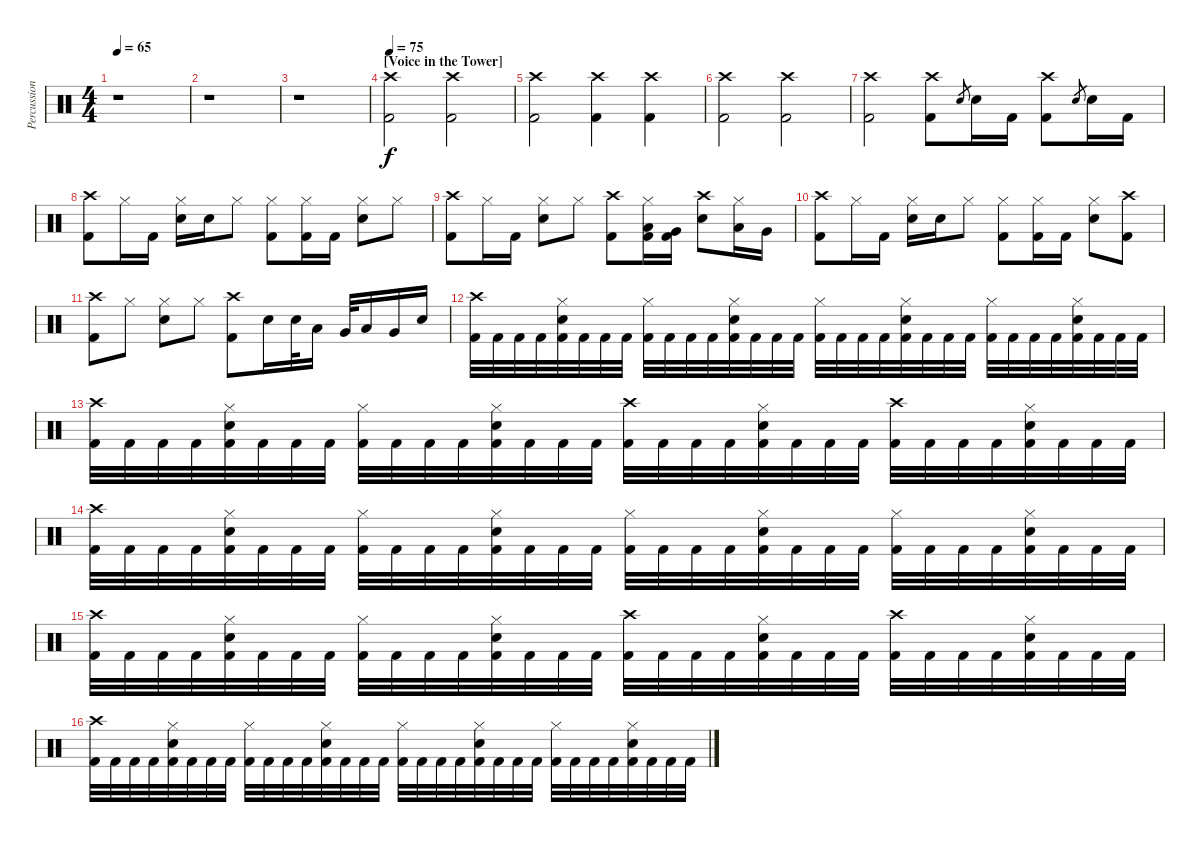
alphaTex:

\track ("Percussions" "Percussion") {instrument percussion}
\staff {score}
\articulation defaults
\ts (4 4)
\tempo 65
\clef neutral
\ks c
r.1{dy f} |
r.1 |
r.1 |
\section ("" "[Voice in the Tower]")
\tempo 75
("Crash high (hit)" "Kick (hit) 2").2 ("Crash high (hit)" "Kick (hit) 2").2 |
("Crash high (hit)" "Kick (hit) 2").2 ("Crash high (hit)" "Kick (hit) 2").4 ("Crash high (hit)" "Kick (hit) 2").4 |
("Crash high (hit)" "Kick (hit) 2").2 ("Crash high (hit)" "Kick (hit) 2").2 |
("Crash high (hit)" "Kick (hit) 2").2 ("Crash high (hit)" "Kick (hit) 2").8 "Electric Snare (hit)".8{gr} "Electric Snare (hit)".16 "Kick (hit) 2".16 ("Crash high (hit)" "Kick (hit) 2").8 "Electric Snare (hit)".8{gr} "Electric Snare (hit)".16 "Kick (hit) 2".16 |
("Crash high (hit)" "Kick (hit) 2").8 "Hi-Hat (closed)".16 "Kick (hit) 2".16 ("Hi-Hat (closed)" "Electric Snare (hit)").16 "Electric Snare (hit)".16 "Hi-Hat (closed)".8 ("Hi-Hat (closed)" "Kick (hit) 2").8 ("Hi-Hat (closed)" "Kick (hit) 2").16 "Kick (hit) 2".16 ("Hi-Hat (closed)" "Electric Snare (hit)").8 "Hi-Hat (closed)".8 |
("Crash high (hit)" "Kick (hit) 2").8 "Hi-Hat (closed)".16 "Kick (hit) 2".16 ("Hi-Hat (closed)" "Electric Snare (hit)").8 "Hi-Hat (closed)".8 ("Crash high (hit)" "Kick (hit) 2").8 ("Hi-Hat (closed)" "Low Floor Tom (hit)" "Kick (hit) 2").16 ("Very Low Tom (hit)" "Kick (hit) 2").16 ("Crash high (hit)" "Electric Snare (hit)").8 ("Hi-Hat (closed)" "Low Tom (hit)").16 "Very Low Tom (hit)".16 |
("Crash high (hit)" "Kick (hit) 2").8 "Hi-Hat (closed)".16 "Kick (hit) 2".16 ("Hi-Hat (closed)" "Electric Snare (hit)").16 "Electric Snare (hit)".16 "Hi-Hat (closed)".8 ("Hi-Hat (closed)" "Kick (hit) 2").8 ("Hi-Hat (closed)" "Kick (hit) 2").16 "Kick (hit) 2".16 ("Hi-Hat (closed)" "Electric Snare (hit)").8 ("Crash high (hit)" "Kick (hit) 2").8 |
("Crash high (hit)" "Kick (hit) 2").8 "Hi-Hat (closed)".8 ("Hi-Hat (closed)" "Electric Snare (hit)").8 "Hi-Hat (closed)".8 ("Crash high (hit)" "Kick (hit) 2").8 "Electric Snare (hit)".16 "Electric Snare (hit)".32 "Low Tom (hit)".16 "Very Low Tom (hit)".32 "Low Floor Tom (hit)".16 "Very Low Tom (hit)".16 "Electric Snare (hit)".16 |
("Crash high (hit)" "Kick (hit) 2").32 "Kick (hit) 2".32 "Kick (hit) 2".32 "Kick (hit) 2".32 ("Hi-Hat (closed)" "Electric Snare (hit)" "Kick (hit) 2").32 "Kick (hit) 2".32 "Kick (hit) 2".32 "Kick (hit) 2".32 ("Hi-Hat (closed)" "Kick (hit) 2").32 "Kick (hit) 2".32 "Kick (hit) 2".32 "Kick (hit) 2".32 ("Hi-Hat (closed)" "Electric Snare (hit)" "Kick (hit) 2").32 "Kick (hit) 2".32 "Kick (hit) 2".32 "Kick (hit) 2".32 ("Hi-Hat (closed)" "Kick (hit) 2").32 "Kick (hit) 2".32 "Kick (hit) 2".32 "Kick (hit) 2".32 ("Hi-Hat (closed)" "Electric Snare (hit)" "Kick (hit) 2").32 "Kick (hit) 2".32 "Kick (hit) 2".32 "Kick (hit) 2".32 ("Hi-Hat (closed)" "Kick (hit) 2").32 "Kick (hit) 2".32 "Kick (hit) 2".32 "Kick (hit) 2".32 ("Hi-Hat (closed)" "Electric Snare (hit)" "Kick (hit) 2").32 "Kick (hit) 2".32 "Kick (hit) 2".32 "Kick (hit) 2".32 |
("Crash high (hit)" "Kick (hit) 2").32 "Kick (hit) 2".32 "Kick (hit) 2".32 "Kick (hit) 2".32 ("Hi-Hat (closed)" "Electric Snare (hit)" "Kick (hit) 2").32 "Kick (hit) 2".32 "Kick (hit) 2".32 "Kick (hit) 2".32 ("Hi-Hat (closed)" "Kick (hit) 2").32 "Kick (hit) 2".32 "Kick (hit) 2".32 "Kick (hit) 2".32 ("Hi-Hat (closed)" "Electric Snare (hit)" "Kick (hit) 2").32 "Kick (hit) 2".32 "Kick (hit) 2".32 "Kick (hit) 2".32 ("Crash high (hit)" "Kick (hit) 2").32 "Kick (hit) 2".32 "Kick (hit) 2".32 "Kick (hit) 2".32 ("Hi-Hat (closed)" "Electric Snare (hit)" "Kick (hit) 2").32 "Kick (hit) 2".32 "Kick (hit) 2".32 "Kick (hit) 2".32 ("Crash high (hit)" "Kick (hit) 2").32 "Kick (hit) 2".32 "Kick (hit) 2".32 "Kick (hit) 2".32 ("Hi-Hat (closed)" "Electric Snare (hit)" "Kick (hit) 2").32 "Kick (hit) 2".32 "Kick (hit) 2".32 "Kick (hit) 2".32 |
("Crash high (hit)" "Kick (hit) 2").32 "Kick (hit) 2".32 "Kick (hit) 2".32 "Kick (hit) 2".32 ("Hi-Hat (closed)" "Electric Snare (hit)" "Kick (hit) 2").32 "Kick (hit) 2".32 "Kick (hit) 2".32 "Kick (hit) 2".32 ("Hi-Hat (closed)" "Kick (hit) 2").32 "Kick (hit) 2".32 "Kick (hit) 2".32 "Kick (hit) 2".32 ("Hi-Hat (closed)" "Electric Snare (hit)" "Kick (hit) 2").32 "Kick (hit) 2".32 "Kick (hit) 2".32 "Kick (hit) 2".32 ("Hi-Hat (closed)" "Kick (hit) 2").32 "Kick (hit) 2".32 "Kick (hit) 2".32 "Kick (hit) 2".32 ("Hi-Hat (closed)" "Electric Snare (hit)" "Kick (hit) 2").32 "Kick (hit) 2".32 "Kick (hit) 2".32 "Kick (hit) 2".32 ("Hi-Hat (closed)" "Kick (hit) 2").32 "Kick (hit) 2".32 "Kick (hit) 2".32 "Kick (hit) 2".32 ("Hi-Hat (closed)" "Electric Snare (hit)" "Kick (hit) 2").32 "Kick (hit) 2".32 "Kick (hit) 2".32 "Kick (hit) 2".32 |
("Crash high (hit)" "Kick (hit) 2").32 "Kick (hit) 2".32 "Kick (hit) 2".32 "Kick (hit) 2".32 ("Hi-Hat (closed)" "Electric Snare (hit)" "Kick (hit) 2").32 "Kick (hit) 2".32 "Kick (hit) 2".32 "Kick (hit) 2".32 ("Hi-Hat (closed)" "Kick (hit) 2").32 "Kick (hit) 2".32 "Kick (hit) 2".32 "Kick (hit) 2".32 ("Hi-Hat (closed)" "Electric Snare (hit)" "Kick (hit) 2").32 "Kick (hit) 2".32 "Kick (hit) 2".32 "Kick (hit) 2".32 ("Crash high (hit)" "Kick (hit) 2").32 "Kick (hit) 2".32 "Kick (hit) 2".32 "Kick (hit) 2".32 ("Hi-Hat (closed)" "Electric Snare (hit)" "Kick (hit) 2").32 "Kick (hit) 2".32 "Kick (hit) 2".32 "Kick (hit) 2".32 ("Crash high (hit)" "Kick (hit) 2").32 "Kick (hit) 2".32 "Kick (hit) 2".32 "Kick (hit) 2".32 ("Hi-Hat (closed)" "Electric Snare (hit)" "Kick (hit) 2").32 "Kick (hit) 2".32 "Kick (hit) 2".32 "Kick (hit) 2".32 |
("Crash high (hit)" "Kick (hit) 2").32 "Kick (hit) 2".32 "Kick (hit) 2".32 "Kick (hit) 2".32 ("Hi-Hat (closed)" "Electric Snare (hit)" "Kick (hit) 2").32 "Kick (hit) 2".32 "Kick (hit) 2".32 "Kick (hit) 2".32 ("Hi-Hat (closed)" "Kick (hit) 2").32 "Kick (hit) 2".32 "Kick (hit) 2".32 "Kick (hit) 2".32 ("Hi-Hat (closed)" "Electric Snare (hit)" "Kick (hit) 2").32 "Kick (hit) 2".32 "Kick (hit) 2".32 "Kick (hit) 2".32 ("Hi-Hat (closed)" "Kick (hit) 2").32 "Kick (hit) 2".32 "Kick (hit) 2".32 "Kick (hit) 2".32 ("Hi-Hat (closed)" "Electric Snare (hit)" "Kick (hit) 2").32 "Kick (hit) 2".32 "Kick (hit) 2".32 "Kick (hit) 2".32 ("Hi-Hat (closed)" "Kick (hit) 2").32 "Kick (hit) 2".32 "Kick (hit) 2".32 "Kick (hit) 2".32 ("Hi-Hat (closed)" "Electric Snare (hit)" "Kick (hit) 2").32 "Kick (hit) 2".32 "Kick (hit) 2".32 "Kick (hit) 2".32
